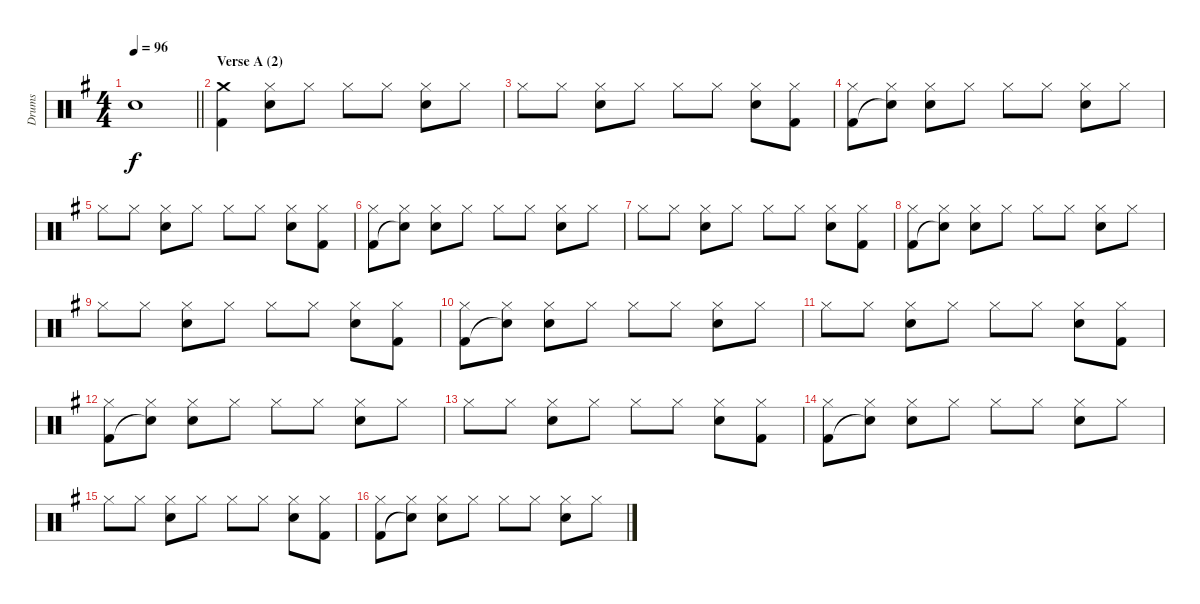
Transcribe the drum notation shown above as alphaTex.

\track ("Drums" "Drums") {instrument percussion}
\staff {score}
\articulation defaults
\ts (4 4)
\tempo 96
\clef neutral
\barLineRight lightlight
\ks eminor "Snare (hit)"{t}.1{dy f}
|
\section ("" "Verse A (2)")
("Crash medium (hit)" "Kick (hit) 2").4 ("Hi-Hat (closed)" "Electric Snare (hit)").8 "Hi-Hat (closed)".8 "Hi-Hat (closed)".8 "Hi-Hat (closed)".8 ("Hi-Hat (closed)" "Electric Snare (hit)").8 "Hi-Hat (closed)".8 |
"Hi-Hat (closed)".8 "Hi-Hat (closed)".8 ("Hi-Hat (closed)" "Electric Snare (hit)").8 "Hi-Hat (closed)".8 "Hi-Hat (closed)".8 "Hi-Hat (closed)".8 ("Hi-Hat (closed)" "Electric Snare (hit)").8 ("Hi-Hat (closed)" "Kick (hit) 2").8 |
("Hi-Hat (closed)" "Kick (hit) 2").8 ("Hi-Hat (closed)" "Snare (hit)"{t}).8 ("Hi-Hat (closed)" "Electric Snare (hit)").8 "Hi-Hat (closed)".8 "Hi-Hat (closed)".8 "Hi-Hat (closed)".8 ("Hi-Hat (closed)" "Electric Snare (hit)").8 "Hi-Hat (closed)".8 |
"Hi-Hat (closed)".8 "Hi-Hat (closed)".8 ("Hi-Hat (closed)" "Electric Snare (hit)").8 "Hi-Hat (closed)".8 "Hi-Hat (closed)".8 "Hi-Hat (closed)".8 ("Hi-Hat (closed)" "Electric Snare (hit)").8 ("Hi-Hat (closed)" "Kick (hit) 2").8 |
("Hi-Hat (closed)" "Kick (hit) 2").8 ("Hi-Hat (closed)" "Snare (hit)"{t}).8 ("Hi-Hat (closed)" "Electric Snare (hit)").8 "Hi-Hat (closed)".8 "Hi-Hat (closed)".8 "Hi-Hat (closed)".8 ("Hi-Hat (closed)" "Electric Snare (hit)").8 "Hi-Hat (closed)".8 |
"Hi-Hat (closed)".8 "Hi-Hat (closed)".8 ("Hi-Hat (closed)" "Electric Snare (hit)").8 "Hi-Hat (closed)".8 "Hi-Hat (closed)".8 "Hi-Hat (closed)".8 ("Hi-Hat (closed)" "Electric Snare (hit)").8 ("Hi-Hat (closed)" "Kick (hit) 2").8 |
("Hi-Hat (closed)" "Kick (hit) 2").8 ("Hi-Hat (closed)" "Snare (hit)"{t}).8 ("Hi-Hat (closed)" "Electric Snare (hit)").8 "Hi-Hat (closed)".8 "Hi-Hat (closed)".8 "Hi-Hat (closed)".8 ("Hi-Hat (closed)" "Electric Snare (hit)").8 "Hi-Hat (closed)".8 |
"Hi-Hat (closed)".8 "Hi-Hat (closed)".8 ("Hi-Hat (closed)" "Electric Snare (hit)").8 "Hi-Hat (closed)".8 "Hi-Hat (closed)".8 "Hi-Hat (closed)".8 ("Hi-Hat (closed)" "Electric Snare (hit)").8 ("Hi-Hat (closed)" "Kick (hit) 2").8 |
("Hi-Hat (closed)" "Kick (hit) 2").8 ("Hi-Hat (closed)" "Snare (hit)"{t}).8 ("Hi-Hat (closed)" "Electric Snare (hit)").8 "Hi-Hat (closed)".8 "Hi-Hat (closed)".8 "Hi-Hat (closed)".8 ("Hi-Hat (closed)" "Electric Snare (hit)").8 "Hi-Hat (closed)".8 |
"Hi-Hat (closed)".8 "Hi-Hat (closed)".8 ("Hi-Hat (closed)" "Electric Snare (hit)").8 "Hi-Hat (closed)".8 "Hi-Hat (closed)".8 "Hi-Hat (closed)".8 ("Hi-Hat (closed)" "Electric Snare (hit)").8 ("Hi-Hat (closed)" "Kick (hit) 2").8 |
("Hi-Hat (closed)" "Kick (hit) 2").8 ("Hi-Hat (closed)" "Snare (hit)"{t}).8 ("Hi-Hat (closed)" "Electric Snare (hit)").8 "Hi-Hat (closed)".8 "Hi-Hat (closed)".8 "Hi-Hat (closed)".8 ("Hi-Hat (closed)" "Electric Snare (hit)").8 "Hi-Hat (closed)".8 |
"Hi-Hat (closed)".8 "Hi-Hat (closed)".8 ("Hi-Hat (closed)" "Electric Snare (hit)").8 "Hi-Hat (closed)".8 "Hi-Hat (closed)".8 "Hi-Hat (closed)".8 ("Hi-Hat (closed)" "Electric Snare (hit)").8 ("Hi-Hat (closed)" "Kick (hit) 2").8 |
("Hi-Hat (closed)" "Kick (hit) 2").8 ("Hi-Hat (closed)" "Snare (hit)"{t}).8 ("Hi-Hat (closed)" "Electric Snare (hit)").8 "Hi-Hat (closed)".8 "Hi-Hat (closed)".8 "Hi-Hat (closed)".8 ("Hi-Hat (closed)" "Electric Snare (hit)").8 "Hi-Hat (closed)".8 |
"Hi-Hat (closed)".8 "Hi-Hat (closed)".8 ("Hi-Hat (closed)" "Electric Snare (hit)").8 "Hi-Hat (closed)".8 "Hi-Hat (closed)".8 "Hi-Hat (closed)".8 ("Hi-Hat (closed)" "Electric Snare (hit)").8 ("Hi-Hat (closed)" "Kick (hit) 2").8 |
("Hi-Hat (closed)" "Kick (hit) 2").8 ("Hi-Hat (closed)" "Snare (hit)"{t}).8 ("Hi-Hat (closed)" "Electric Snare (hit)").8 "Hi-Hat (closed)".8 "Hi-Hat (closed)".8 "Hi-Hat (closed)".8 ("Hi-Hat (closed)" "Electric Snare (hit)").8 "Hi-Hat (closed)".8
